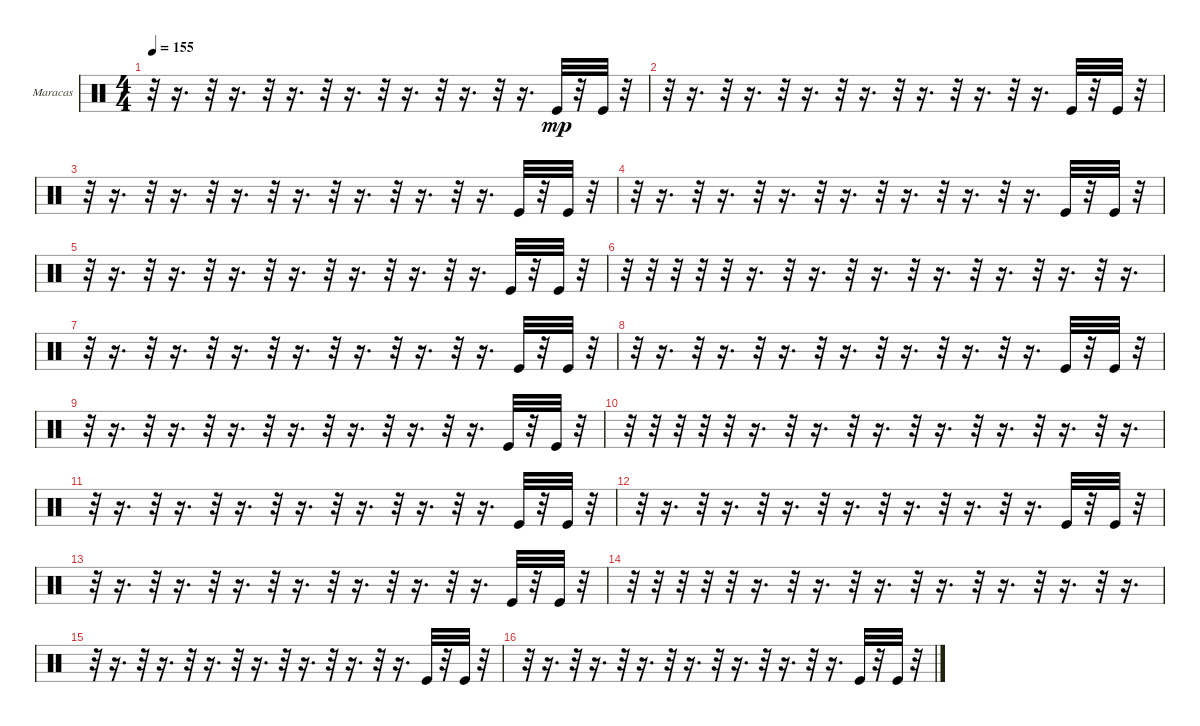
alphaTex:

\bracketExtendMode groupsimilarinstruments
\firstSystemTrackNameOrientation horizontal
\otherSystemsTrackNameOrientation horizontal
\track ("Е. Кулаков" "Maracas") {instrument percussion}
\staff {score}
\articulation defaults
\ts (4 4)
\tempo 155
\clef neutral
\ks c
r.32{dy mp} r.16{d} r.32 r.16{d} r.32 r.16{d} r.32 r.16{d} r.32 r.16{d} r.32 r.16{d} r.32 r.16{d} "Kick (hit)".32 r.32 "Kick (hit)".32 r.32 |
r.32 r.16{d} r.32 r.16{d} r.32 r.16{d} r.32 r.16{d} r.32 r.16{d} r.32 r.16{d} r.32 r.16{d} "Kick (hit)".32 r.32 "Kick (hit)".32 r.32 |
r.32 r.16{d} r.32 r.16{d} r.32 r.16{d} r.32 r.16{d} r.32 r.16{d} r.32 r.16{d} r.32 r.16{d} "Kick (hit)".32 r.32 "Kick (hit)".32 r.32 |
r.32 r.16{d} r.32 r.16{d} r.32 r.16{d} r.32 r.16{d} r.32 r.16{d} r.32 r.16{d} r.32 r.16{d} "Kick (hit)".32 r.32 "Kick (hit)".32 r.32 |
r.32 r.16{d} r.32 r.16{d} r.32 r.16{d} r.32 r.16{d} r.32 r.16{d} r.32 r.16{d} r.32 r.16{d} "Kick (hit)".32 r.32 "Kick (hit)".32 r.32 |
r.32 r.32 r.32 r.32 r.32 r.16{d} r.32 r.16{d} r.32 r.16{d} r.32 r.16{d} r.32 r.16{d} r.32 r.16{d} r.32 r.16{d} |
r.32 r.16{d} r.32 r.16{d} r.32 r.16{d} r.32 r.16{d} r.32 r.16{d} r.32 r.16{d} r.32 r.16{d} "Kick (hit)".32 r.32 "Kick (hit)".32 r.32 |
r.32 r.16{d} r.32 r.16{d} r.32 r.16{d} r.32 r.16{d} r.32 r.16{d} r.32 r.16{d} r.32 r.16{d} "Kick (hit)".32 r.32 "Kick (hit)".32 r.32 |
r.32 r.16{d} r.32 r.16{d} r.32 r.16{d} r.32 r.16{d} r.32 r.16{d} r.32 r.16{d} r.32 r.16{d} "Kick (hit)".32 r.32 "Kick (hit)".32 r.32 |
r.32 r.32 r.32 r.32 r.32 r.16{d} r.32 r.16{d} r.32 r.16{d} r.32 r.16{d} r.32 r.16{d} r.32 r.16{d} r.32 r.16{d} |
r.32 r.16{d} r.32 r.16{d} r.32 r.16{d} r.32 r.16{d} r.32 r.16{d} r.32 r.16{d} r.32 r.16{d} "Kick (hit)".32 r.32 "Kick (hit)".32 r.32 |
r.32 r.16{d} r.32 r.16{d} r.32 r.16{d} r.32 r.16{d} r.32 r.16{d} r.32 r.16{d} r.32 r.16{d} "Kick (hit)".32 r.32 "Kick (hit)".32 r.32 |
r.32 r.16{d} r.32 r.16{d} r.32 r.16{d} r.32 r.16{d} r.32 r.16{d} r.32 r.16{d} r.32 r.16{d} "Kick (hit)".32 r.32 "Kick (hit)".32 r.32 |
r.32 r.32 r.32 r.32 r.32 r.16{d} r.32 r.16{d} r.32 r.16{d} r.32 r.16{d} r.32 r.16{d} r.32 r.16{d} r.32 r.16{d} |
r.32 r.16{d} r.32 r.16{d} r.32 r.16{d} r.32 r.16{d} r.32 r.16{d} r.32 r.16{d} r.32 r.16{d} "Kick (hit)".32 r.32 "Kick (hit)".32 r.32 |
r.32 r.16{d} r.32 r.16{d} r.32 r.16{d} r.32 r.16{d} r.32 r.16{d} r.32 r.16{d} r.32 r.16{d} "Kick (hit)".32 r.32 "Kick (hit)".32 r.32
